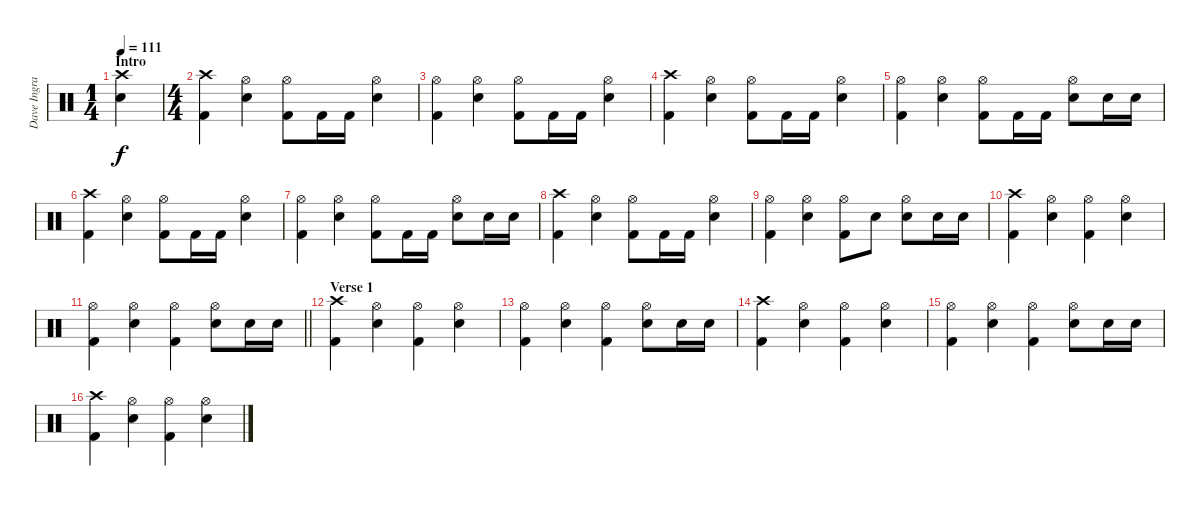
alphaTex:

\track ("Dave Ingraham" "Dave Ingra") {instrument percussion}
\staff {score}
\articulation defaults
\ts (1 4)
\section ("" "Intro")
\tempo 111
\clef neutral
\ks c
("Crash high (hit)" "Electric Snare (hit)").4{dy f} |
\ts (4 4)
("Crash high (hit)" "Kick (hit) 2").4 ("Hi-Hat (open)" "Electric Snare (hit)").4 ("Hi-Hat (open)" "Kick (hit) 2").8 "Kick (hit) 2".16 "Kick (hit) 2".16 ("Hi-Hat (open)" "Electric Snare (hit)").4 |
("Hi-Hat (open)" "Kick (hit) 2").4 ("Hi-Hat (open)" "Electric Snare (hit)").4 ("Hi-Hat (open)" "Kick (hit) 2").8 "Kick (hit) 2".16 "Kick (hit) 2".16 ("Hi-Hat (open)" "Electric Snare (hit)").4 |
("Crash high (hit)" "Kick (hit) 2").4 ("Hi-Hat (open)" "Electric Snare (hit)").4 ("Hi-Hat (open)" "Kick (hit) 2").8 "Kick (hit) 2".16 "Kick (hit) 2".16 ("Hi-Hat (open)" "Electric Snare (hit)").4 |
("Hi-Hat (open)" "Kick (hit) 2").4 ("Hi-Hat (open)" "Electric Snare (hit)").4 ("Hi-Hat (open)" "Kick (hit) 2").8 "Kick (hit) 2".16 "Kick (hit) 2".16 ("Hi-Hat (open)" "Electric Snare (hit)").8 "Electric Snare (hit)".16 "Electric Snare (hit)".16 |
("Crash high (hit)" "Kick (hit) 2").4 ("Hi-Hat (open)" "Electric Snare (hit)").4 ("Hi-Hat (open)" "Kick (hit) 2").8 "Kick (hit) 2".16 "Kick (hit) 2".16 ("Hi-Hat (open)" "Electric Snare (hit)").4 |
("Hi-Hat (open)" "Kick (hit) 2").4 ("Hi-Hat (open)" "Electric Snare (hit)").4 ("Hi-Hat (open)" "Kick (hit) 2").8 "Kick (hit) 2".16 "Kick (hit) 2".16 ("Hi-Hat (open)" "Electric Snare (hit)").8 "Electric Snare (hit)".16 "Electric Snare (hit)".16 |
("Crash high (hit)" "Kick (hit) 2").4 ("Hi-Hat (open)" "Electric Snare (hit)").4 ("Hi-Hat (open)" "Kick (hit) 2").8 "Kick (hit) 2".16 "Kick (hit) 2".16 ("Hi-Hat (open)" "Electric Snare (hit)").4 |
("Hi-Hat (open)" "Kick (hit) 2").4 ("Hi-Hat (open)" "Electric Snare (hit)").4 ("Hi-Hat (open)" "Kick (hit) 2").8 "Electric Snare (hit)".8 ("Hi-Hat (open)" "Electric Snare (hit)").8 "Electric Snare (hit)".16 "Electric Snare (hit)".16 |
("Crash high (hit)" "Kick (hit) 2").4 ("Hi-Hat (open)" "Electric Snare (hit)").4 ("Hi-Hat (open)" "Kick (hit) 2").4 ("Hi-Hat (open)" "Electric Snare (hit)").4 |
\barLineRight lightlight
("Hi-Hat (open)" "Kick (hit) 2").4 ("Hi-Hat (open)" "Electric Snare (hit)").4 ("Hi-Hat (open)" "Kick (hit) 2").4 ("Hi-Hat (open)" "Electric Snare (hit)").8 "Electric Snare (hit)".16 "Electric Snare (hit)".16 |
\section ("" "Verse 1")
("Crash high (hit)" "Kick (hit) 2").4 ("Hi-Hat (open)" "Electric Snare (hit)").4 ("Hi-Hat (open)" "Kick (hit) 2").4 ("Hi-Hat (open)" "Electric Snare (hit)").4 |
("Hi-Hat (open)" "Kick (hit) 2").4 ("Hi-Hat (open)" "Electric Snare (hit)").4 ("Hi-Hat (open)" "Kick (hit) 2").4 ("Hi-Hat (open)" "Electric Snare (hit)").8 "Electric Snare (hit)".16 "Electric Snare (hit)".16 |
("Crash high (hit)" "Kick (hit) 2").4 ("Hi-Hat (open)" "Electric Snare (hit)").4 ("Hi-Hat (open)" "Kick (hit) 2").4 ("Hi-Hat (open)" "Electric Snare (hit)").4 |
("Hi-Hat (open)" "Kick (hit) 2").4 ("Hi-Hat (open)" "Electric Snare (hit)").4 ("Hi-Hat (open)" "Kick (hit) 2").4 ("Hi-Hat (open)" "Electric Snare (hit)").8 "Electric Snare (hit)".16 "Electric Snare (hit)".16 |
("Crash high (hit)" "Kick (hit) 2").4 ("Hi-Hat (open)" "Electric Snare (hit)").4 ("Hi-Hat (open)" "Kick (hit) 2").4 ("Hi-Hat (open)" "Electric Snare (hit)").4
